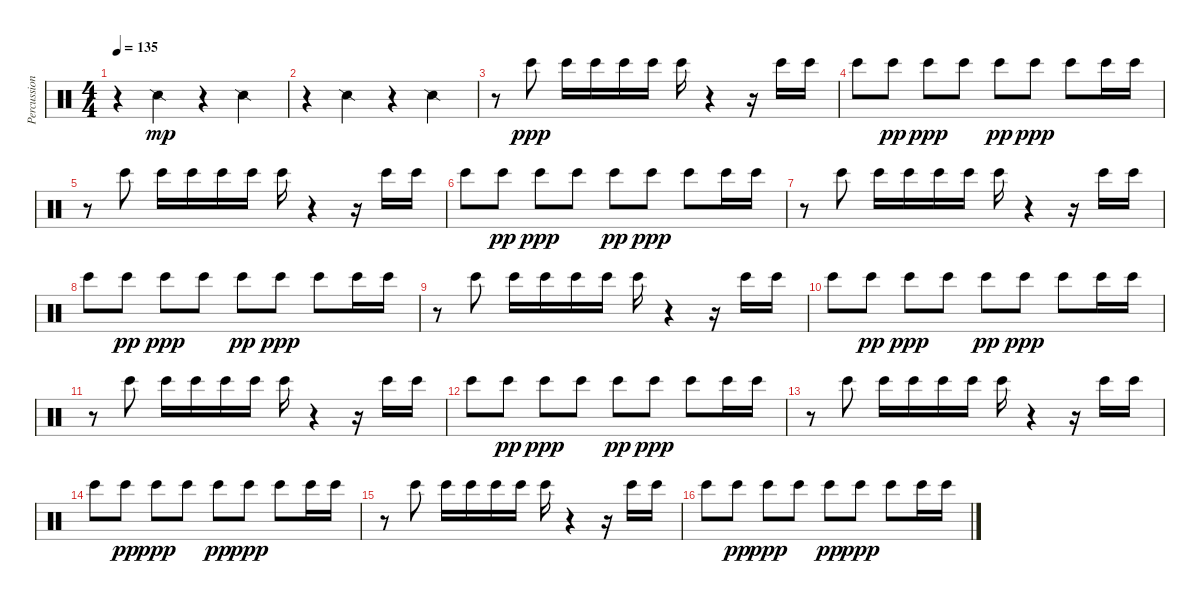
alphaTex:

\track ("Percussion" "Percussion") {instrument percussion}
\staff {score}
\articulation defaults
\ts (4 4)
\tempo 135
\clef neutral
\ks c
r.4{dy mp} "Snare (side stick) 2".4 r.4 "Snare (side stick) 2".4 |
r.4 "Snare (side stick) 2".4 r.4 "Snare (side stick) 2".4 |
r.8 "Bongo High (hit)".8{dy ppp} "Bongo High (hit)".16 "Bongo High (hit)".16 "Bongo High (hit)".16 "Bongo High (hit)".16 "Bongo High (hit)".16 r.4 r.16 "Bongo High (hit)".16 "Bongo High (hit)".16 |
"Bongo High (hit)".8 "Bongo High (hit)".8{dy pp} "Bongo High (hit)".8{dy ppp} "Bongo High (hit)".8 "Bongo High (hit)".8{dy pp} "Bongo High (hit)".8{dy ppp} "Bongo High (hit)".8 "Bongo High (hit)".16 "Bongo High (hit)".16 |
r.8 "Bongo High (hit)".8 "Bongo High (hit)".16 "Bongo High (hit)".16 "Bongo High (hit)".16 "Bongo High (hit)".16 "Bongo High (hit)".16 r.4 r.16 "Bongo High (hit)".16 "Bongo High (hit)".16 |
"Bongo High (hit)".8 "Bongo High (hit)".8{dy pp} "Bongo High (hit)".8{dy ppp} "Bongo High (hit)".8 "Bongo High (hit)".8{dy pp} "Bongo High (hit)".8{dy ppp} "Bongo High (hit)".8 "Bongo High (hit)".16 "Bongo High (hit)".16 |
r.8 "Bongo High (hit)".8 "Bongo High (hit)".16 "Bongo High (hit)".16 "Bongo High (hit)".16 "Bongo High (hit)".16 "Bongo High (hit)".16 r.4 r.16 "Bongo High (hit)".16 "Bongo High (hit)".16 |
"Bongo High (hit)".8 "Bongo High (hit)".8{dy pp} "Bongo High (hit)".8{dy ppp} "Bongo High (hit)".8 "Bongo High (hit)".8{dy pp} "Bongo High (hit)".8{dy ppp} "Bongo High (hit)".8 "Bongo High (hit)".16 "Bongo High (hit)".16 |
r.8 "Bongo High (hit)".8 "Bongo High (hit)".16 "Bongo High (hit)".16 "Bongo High (hit)".16 "Bongo High (hit)".16 "Bongo High (hit)".16 r.4 r.16 "Bongo High (hit)".16 "Bongo High (hit)".16 |
"Bongo High (hit)".8 "Bongo High (hit)".8{dy pp} "Bongo High (hit)".8{dy ppp} "Bongo High (hit)".8 "Bongo High (hit)".8{dy pp} "Bongo High (hit)".8{dy ppp} "Bongo High (hit)".8 "Bongo High (hit)".16 "Bongo High (hit)".16 |
r.8 "Bongo High (hit)".8 "Bongo High (hit)".16 "Bongo High (hit)".16 "Bongo High (hit)".16 "Bongo High (hit)".16 "Bongo High (hit)".16 r.4 r.16 "Bongo High (hit)".16 "Bongo High (hit)".16 |
"Bongo High (hit)".8 "Bongo High (hit)".8{dy pp} "Bongo High (hit)".8{dy ppp} "Bongo High (hit)".8 "Bongo High (hit)".8{dy pp} "Bongo High (hit)".8{dy ppp} "Bongo High (hit)".8 "Bongo High (hit)".16 "Bongo High (hit)".16 |
r.8 "Bongo High (hit)".8 "Bongo High (hit)".16 "Bongo High (hit)".16 "Bongo High (hit)".16 "Bongo High (hit)".16 "Bongo High (hit)".16 r.4 r.16 "Bongo High (hit)".16 "Bongo High (hit)".16 |
"Bongo High (hit)".8 "Bongo High (hit)".8{dy pp} "Bongo High (hit)".8{dy ppp} "Bongo High (hit)".8 "Bongo High (hit)".8{dy pp} "Bongo High (hit)".8{dy ppp} "Bongo High (hit)".8 "Bongo High (hit)".16 "Bongo High (hit)".16 |
r.8 "Bongo High (hit)".8 "Bongo High (hit)".16 "Bongo High (hit)".16 "Bongo High (hit)".16 "Bongo High (hit)".16 "Bongo High (hit)".16 r.4 r.16 "Bongo High (hit)".16 "Bongo High (hit)".16 |
"Bongo High (hit)".8 "Bongo High (hit)".8{dy pp} "Bongo High (hit)".8{dy ppp} "Bongo High (hit)".8 "Bongo High (hit)".8{dy pp} "Bongo High (hit)".8{dy ppp} "Bongo High (hit)".8 "Bongo High (hit)".16 "Bongo High (hit)".16
